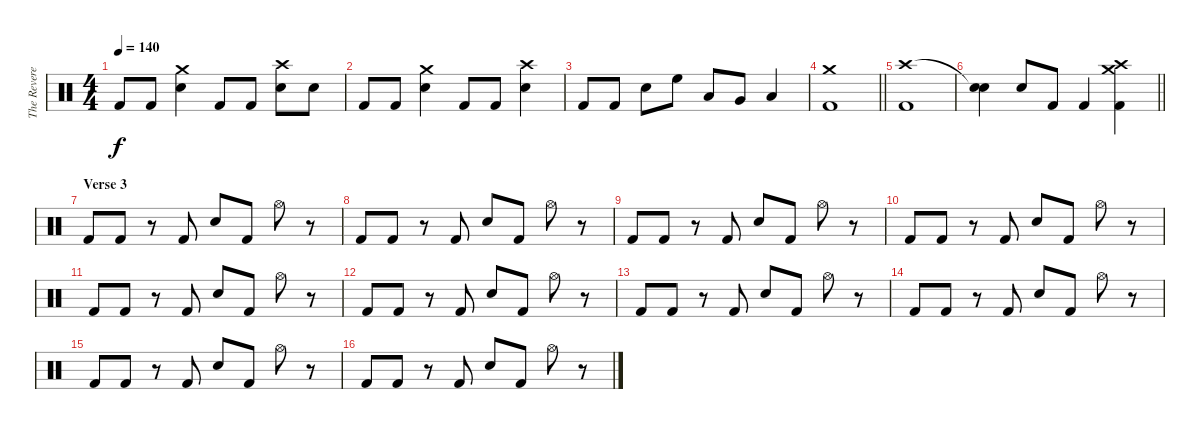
\track ("The Reverend" "The Revere") {instrument percussion}
\staff {score}
\articulation defaults
\ts (4 4)
\tempo 140
\clef neutral
\ks c "Kick (hit) 2".8{dy f} "Kick (hit) 2".8
("Crash medium (hit)" "Snare (hit) 2").4 "Kick (hit) 2".8 "Kick (hit) 2".8 ("Crash high (hit)" "Snare (hit) 2").8 "Snare (hit) 2".8 |
"Kick (hit) 2".8 "Kick (hit) 2".8 ("Crash medium (hit)" "Snare (hit) 2").4 "Kick (hit) 2".8 "Kick (hit) 2".8 ("Crash high (hit)" "Snare (hit) 2").4 |
"Kick (hit) 2".8 "Kick (hit) 2".8 "Snare (hit) 2".8 "High Floor Tom (hit)".8 "Low Tom (hit)".8 "Very Low Tom (hit)".8 "Low Floor Tom (hit)".4 |
\barLineRight lightlight
("Crash medium (hit)" "Kick (hit) 2").1 |
("Crash high (hit)" "Kick (hit) 2").1 |
\barLineRight lightlight
("Snare (hit)"{t} "Snare (hit) 2").4 "Snare (hit) 2".8 "Kick (hit) 2".8 "Kick (hit) 2".4 ("Crash medium (hit)" "Crash high (hit)" "Kick (hit) 2").4 |
\section ("" "Verse 3")
"Kick (hit) 2".8 "Kick (hit) 2".8 r.8 "Kick (hit) 2".8 "Snare (hit) 2".8 "Kick (hit) 2".8 "Hi-Hat (open)".8 r.8 |
"Kick (hit) 2".8 "Kick (hit) 2".8 r.8 "Kick (hit) 2".8 "Snare (hit) 2".8 "Kick (hit) 2".8 "Hi-Hat (open)".8 r.8 |
"Kick (hit) 2".8 "Kick (hit) 2".8 r.8 "Kick (hit) 2".8 "Snare (hit) 2".8 "Kick (hit) 2".8 "Hi-Hat (open)".8 r.8 |
"Kick (hit) 2".8 "Kick (hit) 2".8 r.8 "Kick (hit) 2".8 "Snare (hit) 2".8 "Kick (hit) 2".8 "Hi-Hat (open)".8 r.8 |
"Kick (hit) 2".8 "Kick (hit) 2".8 r.8 "Kick (hit) 2".8 "Snare (hit) 2".8 "Kick (hit) 2".8 "Hi-Hat (open)".8 r.8 |
"Kick (hit) 2".8 "Kick (hit) 2".8 r.8 "Kick (hit) 2".8 "Snare (hit) 2".8 "Kick (hit) 2".8 "Hi-Hat (open)".8 r.8 |
"Kick (hit) 2".8 "Kick (hit) 2".8 r.8 "Kick (hit) 2".8 "Snare (hit) 2".8 "Kick (hit) 2".8 "Hi-Hat (open)".8 r.8 |
"Kick (hit) 2".8 "Kick (hit) 2".8 r.8 "Kick (hit) 2".8 "Snare (hit) 2".8 "Kick (hit) 2".8 "Hi-Hat (open)".8 r.8 |
"Kick (hit) 2".8 "Kick (hit) 2".8 r.8 "Kick (hit) 2".8 "Snare (hit) 2".8 "Kick (hit) 2".8 "Hi-Hat (open)".8 r.8 |
"Kick (hit) 2".8 "Kick (hit) 2".8 r.8 "Kick (hit) 2".8 "Snare (hit) 2".8 "Kick (hit) 2".8 "Hi-Hat (open)".8 r.8
